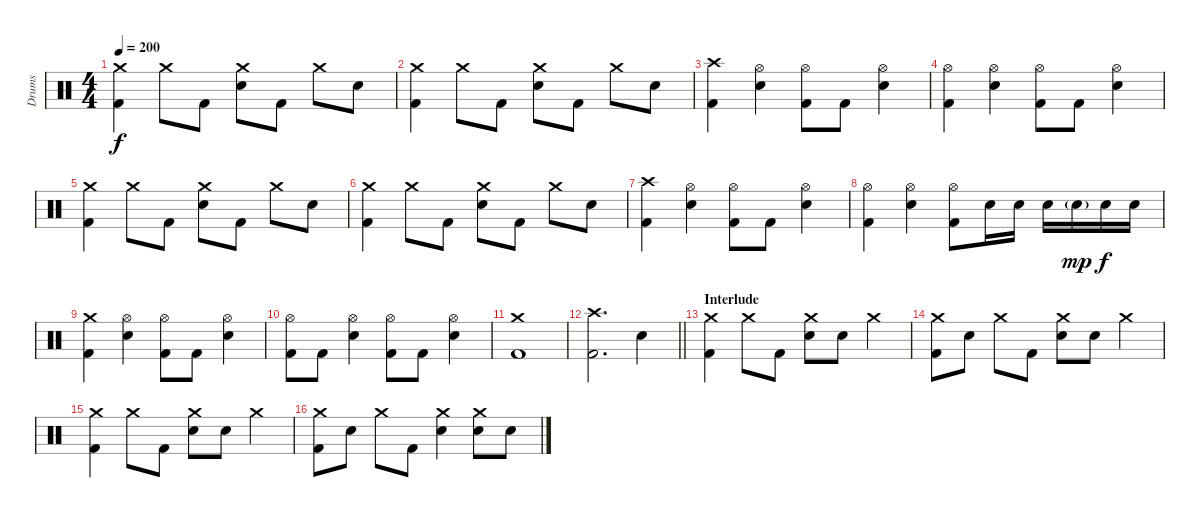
\track ("Drums" "Drums") {instrument percussion}
\staff {score}
\articulation defaults
\ts (4 4)
\tempo 200
\clef neutral
\ks c
("Crash medium (hit)" "Kick (hit) 2").4{dy f} "Crash medium (hit)".8 "Kick (hit) 2".8 ("Crash medium (hit)" "Electric Snare (hit)").8 "Kick (hit) 2".8 "Crash medium (hit)".8 "Electric Snare (hit)".8 |
("Crash medium (hit)" "Kick (hit) 2").4 "Crash medium (hit)".8 "Kick (hit) 2".8 ("Crash medium (hit)" "Electric Snare (hit)").8 "Kick (hit) 2".8 "Crash medium (hit)".8 "Electric Snare (hit)".8 |
("Crash high (hit)" "Kick (hit) 2").4 ("Hi-Hat (open)" "Electric Snare (hit)").4 ("Hi-Hat (open)" "Kick (hit) 2").8 "Kick (hit) 2".8 ("Hi-Hat (open)" "Electric Snare (hit)").4 |
("Hi-Hat (open)" "Kick (hit) 2").4 ("Hi-Hat (open)" "Electric Snare (hit)").4 ("Hi-Hat (open)" "Kick (hit) 2").8 "Kick (hit) 2".8 ("Hi-Hat (open)" "Electric Snare (hit)").4 |
("Crash medium (hit)" "Kick (hit) 2").4 "Crash medium (hit)".8 "Kick (hit) 2".8 ("Crash medium (hit)" "Electric Snare (hit)").8 "Kick (hit) 2".8 "Crash medium (hit)".8 "Electric Snare (hit)".8 |
("Crash medium (hit)" "Kick (hit) 2").4 "Crash medium (hit)".8 "Kick (hit) 2".8 ("Crash medium (hit)" "Electric Snare (hit)").8 "Kick (hit) 2".8 "Crash medium (hit)".8 "Electric Snare (hit)".8 |
("Crash high (hit)" "Kick (hit) 2").4 ("Hi-Hat (open)" "Electric Snare (hit)").4 ("Hi-Hat (open)" "Kick (hit) 2").8 "Kick (hit) 2".8 ("Hi-Hat (open)" "Electric Snare (hit)").4 |
("Hi-Hat (open)" "Kick (hit) 2").4 ("Hi-Hat (open)" "Electric Snare (hit)").4 ("Hi-Hat (open)" "Kick (hit) 2").8 "Electric Snare (hit)".16 "Electric Snare (hit)".16 "Electric Snare (hit)".16 "Electric Snare (hit)"{g}.16{dy mp} "Electric Snare (hit)".16{dy f} "Electric Snare (hit)".16 |
("Crash medium (hit)" "Kick (hit) 2").4 ("Hi-Hat (open)" "Electric Snare (hit)").4 ("Hi-Hat (open)" "Kick (hit) 2").8 "Kick (hit) 2".8 ("Hi-Hat (open)" "Electric Snare (hit)").4 |
("Hi-Hat (open)" "Kick (hit) 2").8 "Kick (hit) 2".8 ("Hi-Hat (open)" "Electric Snare (hit)").4 ("Hi-Hat (open)" "Kick (hit) 2").8 "Kick (hit) 2".8 ("Hi-Hat (open)" "Electric Snare (hit)").4 |
("Crash medium (hit)" "Kick (hit) 2").1 |
\barLineRight lightlight
("Crash high (hit)" "Kick (hit) 2").2{d} "Electric Snare (hit)".4 |
\section ("" "Interlude")
("Crash medium (hit)" "Kick (hit) 2").4 "Crash medium (hit)".8 "Kick (hit) 2".8 ("Crash medium (hit)" "Electric Snare (hit)").8 "Electric Snare (hit)".8 "Crash medium (hit)".4 |
("Crash medium (hit)" "Kick (hit) 2").8 "Electric Snare (hit)".8 "Crash medium (hit)".8 "Kick (hit) 2".8 ("Crash medium (hit)" "Electric Snare (hit)").8 "Electric Snare (hit)".8 "Crash medium (hit)".4 |
("Crash medium (hit)" "Kick (hit) 2").4 "Crash medium (hit)".8 "Kick (hit) 2".8 ("Crash medium (hit)" "Electric Snare (hit)").8 "Electric Snare (hit)".8 "Crash medium (hit)".4 |
("Crash medium (hit)" "Kick (hit) 2").8 "Electric Snare (hit)".8 "Crash medium (hit)".8 "Kick (hit) 2".8 ("Crash medium (hit)" "Electric Snare (hit)").4 ("Crash medium (hit)" "Electric Snare (hit)").8 "Electric Snare (hit)".8
